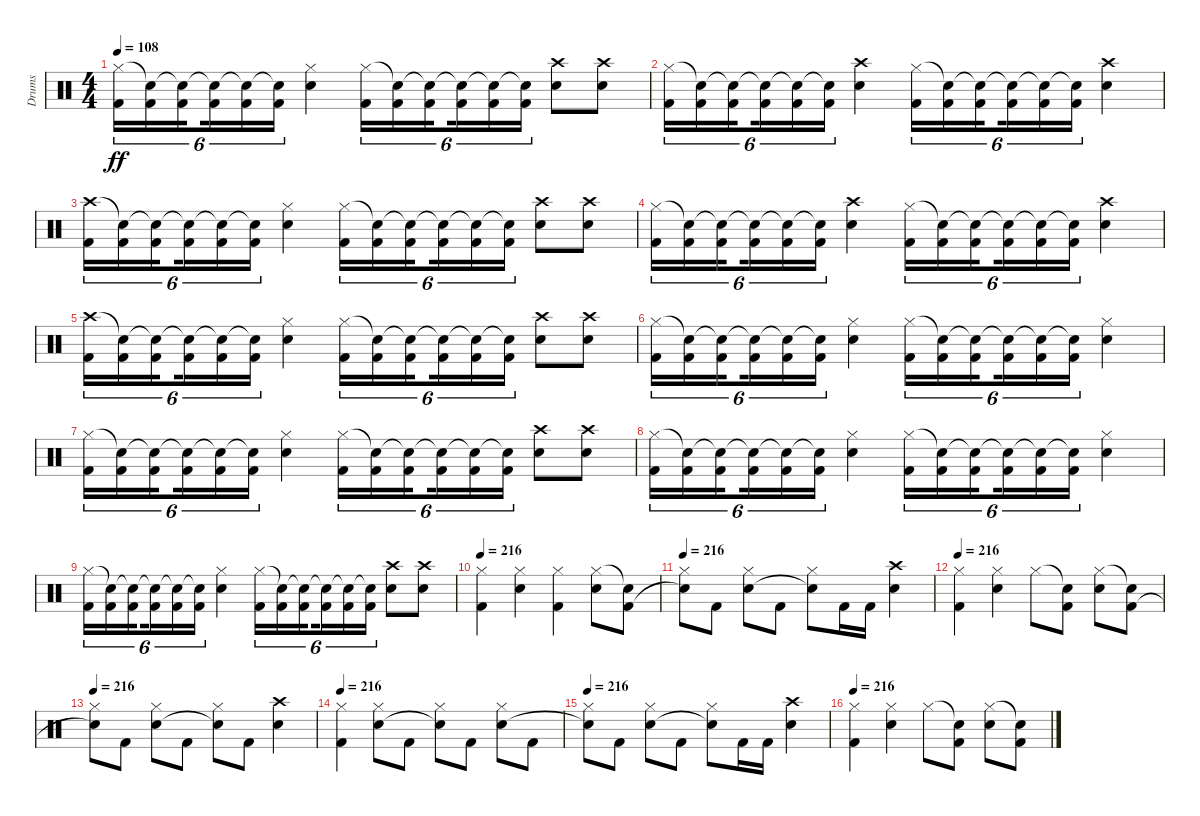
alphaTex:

\track ("Drums" "Drums") {instrument percussion}
\staff {score}
\articulation defaults
\ts (4 4)
\tempo 108
\clef neutral
\ks c
("Hi-Hat (closed)" "Kick (hit) 2").16{tu (6 4) dy ff} ("Snare (hit)"{t} "Kick (hit) 2").16{tu (6 4)} ("Snare (hit)"{t} "Kick (hit) 2").16{tu (6 4) beam splitsecondary} ("Snare (hit)"{t} "Kick (hit) 2").16{tu (6 4)} ("Snare (hit)"{t} "Kick (hit) 2").16{tu (6 4)} ("Snare (hit)"{t} "Kick (hit) 2").16{tu (6 4)} ("Hi-Hat (closed)" "Snare (hit) 2").4 ("Hi-Hat (closed)" "Kick (hit) 2").16{tu (6 4)} ("Snare (hit)"{t} "Kick (hit) 2").16{tu (6 4)} ("Snare (hit)"{t} "Kick (hit) 2").16{tu (6 4) beam splitsecondary} ("Snare (hit)"{t} "Kick (hit) 2").16{tu (6 4)} ("Snare (hit)"{t} "Kick (hit) 2").16{tu (6 4)} ("Snare (hit)"{t} "Kick (hit) 2").16{tu (6 4)} ("Crash high (hit)" "Snare (hit) 2").8 ("Crash high (hit)" "Snare (hit) 2").8 |
("Hi-Hat (closed)" "Kick (hit) 2").16{tu (6 4)} ("Snare (hit)"{t} "Kick (hit) 2").16{tu (6 4)} ("Snare (hit)"{t} "Kick (hit) 2").16{tu (6 4) beam splitsecondary} ("Snare (hit)"{t} "Kick (hit) 2").16{tu (6 4)} ("Snare (hit)"{t} "Kick (hit) 2").16{tu (6 4)} ("Snare (hit)"{t} "Kick (hit) 2").16{tu (6 4)} ("Crash high (hit)" "Snare (hit) 2").4 ("Hi-Hat (closed)" "Kick (hit) 2").16{tu (6 4)} ("Snare (hit)"{t} "Kick (hit) 2").16{tu (6 4)} ("Snare (hit)"{t} "Kick (hit) 2").16{tu (6 4) beam splitsecondary} ("Snare (hit)"{t} "Kick (hit) 2").16{tu (6 4)} ("Snare (hit)"{t} "Kick (hit) 2").16{tu (6 4)} ("Snare (hit)"{t} "Kick (hit) 2").16{tu (6 4)} ("Crash high (hit)" "Snare (hit) 2").4 |
("Crash high (hit)" "Kick (hit) 2").16{tu (6 4)} ("Snare (hit)"{t} "Kick (hit) 2").16{tu (6 4)} ("Snare (hit)"{t} "Kick (hit) 2").16{tu (6 4) beam splitsecondary} ("Snare (hit)"{t} "Kick (hit) 2").16{tu (6 4)} ("Snare (hit)"{t} "Kick (hit) 2").16{tu (6 4)} ("Snare (hit)"{t} "Kick (hit) 2").16{tu (6 4)} ("Hi-Hat (closed)" "Snare (hit) 2").4 ("Hi-Hat (closed)" "Kick (hit) 2").16{tu (6 4)} ("Snare (hit)"{t} "Kick (hit) 2").16{tu (6 4)} ("Snare (hit)"{t} "Kick (hit) 2").16{tu (6 4) beam splitsecondary} ("Snare (hit)"{t} "Kick (hit) 2").16{tu (6 4)} ("Snare (hit)"{t} "Kick (hit) 2").16{tu (6 4)} ("Snare (hit)"{t} "Kick (hit) 2").16{tu (6 4)} ("Crash high (hit)" "Snare (hit) 2").8 ("Crash high (hit)" "Snare (hit) 2").8 |
("Hi-Hat (closed)" "Kick (hit) 2").16{tu (6 4)} ("Snare (hit)"{t} "Kick (hit) 2").16{tu (6 4)} ("Snare (hit)"{t} "Kick (hit) 2").16{tu (6 4) beam splitsecondary} ("Snare (hit)"{t} "Kick (hit) 2").16{tu (6 4)} ("Snare (hit)"{t} "Kick (hit) 2").16{tu (6 4)} ("Snare (hit)"{t} "Kick (hit) 2").16{tu (6 4)} ("Crash high (hit)" "Snare (hit) 2").4 ("Hi-Hat (closed)" "Kick (hit) 2").16{tu (6 4)} ("Snare (hit)"{t} "Kick (hit) 2").16{tu (6 4)} ("Snare (hit)"{t} "Kick (hit) 2").16{tu (6 4) beam splitsecondary} ("Snare (hit)"{t} "Kick (hit) 2").16{tu (6 4)} ("Snare (hit)"{t} "Kick (hit) 2").16{tu (6 4)} ("Snare (hit)"{t} "Kick (hit) 2").16{tu (6 4)} ("Crash high (hit)" "Snare (hit) 2").4 |
("Crash high (hit)" "Kick (hit) 2").16{tu (6 4)} ("Snare (hit)"{t} "Kick (hit) 2").16{tu (6 4)} ("Snare (hit)"{t} "Kick (hit) 2").16{tu (6 4) beam splitsecondary} ("Snare (hit)"{t} "Kick (hit) 2").16{tu (6 4)} ("Snare (hit)"{t} "Kick (hit) 2").16{tu (6 4)} ("Snare (hit)"{t} "Kick (hit) 2").16{tu (6 4)} ("Hi-Hat (closed)" "Snare (hit) 2").4 ("Hi-Hat (closed)" "Kick (hit) 2").16{tu (6 4)} ("Snare (hit)"{t} "Kick (hit) 2").16{tu (6 4)} ("Snare (hit)"{t} "Kick (hit) 2").16{tu (6 4) beam splitsecondary} ("Snare (hit)"{t} "Kick (hit) 2").16{tu (6 4)} ("Snare (hit)"{t} "Kick (hit) 2").16{tu (6 4)} ("Snare (hit)"{t} "Kick (hit) 2").16{tu (6 4)} ("Crash high (hit)" "Snare (hit) 2").8 ("Crash high (hit)" "Snare (hit) 2").8 |
("Hi-Hat (closed)" "Kick (hit) 2").16{tu (6 4)} ("Snare (hit)"{t} "Kick (hit) 2").16{tu (6 4)} ("Snare (hit)"{t} "Kick (hit) 2").16{tu (6 4) beam splitsecondary} ("Snare (hit)"{t} "Kick (hit) 2").16{tu (6 4)} ("Snare (hit)"{t} "Kick (hit) 2").16{tu (6 4)} ("Snare (hit)"{t} "Kick (hit) 2").16{tu (6 4)} ("Hi-Hat (closed)" "Snare (hit) 2").4 ("Hi-Hat (closed)" "Kick (hit) 2").16{tu (6 4)} ("Snare (hit)"{t} "Kick (hit) 2").16{tu (6 4)} ("Snare (hit)"{t} "Kick (hit) 2").16{tu (6 4) beam splitsecondary} ("Snare (hit)"{t} "Kick (hit) 2").16{tu (6 4)} ("Snare (hit)"{t} "Kick (hit) 2").16{tu (6 4)} ("Snare (hit)"{t} "Kick (hit) 2").16{tu (6 4)} ("Hi-Hat (closed)" "Snare (hit) 2").4 |
("Hi-Hat (closed)" "Kick (hit) 2").16{tu (6 4)} ("Snare (hit)"{t} "Kick (hit) 2").16{tu (6 4)} ("Snare (hit)"{t} "Kick (hit) 2").16{tu (6 4) beam splitsecondary} ("Snare (hit)"{t} "Kick (hit) 2").16{tu (6 4)} ("Snare (hit)"{t} "Kick (hit) 2").16{tu (6 4)} ("Snare (hit)"{t} "Kick (hit) 2").16{tu (6 4)} ("Hi-Hat (closed)" "Snare (hit) 2").4 ("Hi-Hat (closed)" "Kick (hit) 2").16{tu (6 4)} ("Snare (hit)"{t} "Kick (hit) 2").16{tu (6 4)} ("Snare (hit)"{t} "Kick (hit) 2").16{tu (6 4) beam splitsecondary} ("Snare (hit)"{t} "Kick (hit) 2").16{tu (6 4)} ("Snare (hit)"{t} "Kick (hit) 2").16{tu (6 4)} ("Snare (hit)"{t} "Kick (hit) 2").16{tu (6 4)} ("Crash high (hit)" "Snare (hit) 2").8 ("Crash high (hit)" "Snare (hit) 2").8 |
("Hi-Hat (closed)" "Kick (hit) 2").16{tu (6 4)} ("Snare (hit)"{t} "Kick (hit) 2").16{tu (6 4)} ("Snare (hit)"{t} "Kick (hit) 2").16{tu (6 4) beam splitsecondary} ("Snare (hit)"{t} "Kick (hit) 2").16{tu (6 4)} ("Snare (hit)"{t} "Kick (hit) 2").16{tu (6 4)} ("Snare (hit)"{t} "Kick (hit) 2").16{tu (6 4)} ("Hi-Hat (closed)" "Snare (hit) 2").4 ("Hi-Hat (closed)" "Kick (hit) 2").16{tu (6 4)} ("Snare (hit)"{t} "Kick (hit) 2").16{tu (6 4)} ("Snare (hit)"{t} "Kick (hit) 2").16{tu (6 4) beam splitsecondary} ("Snare (hit)"{t} "Kick (hit) 2").16{tu (6 4)} ("Snare (hit)"{t} "Kick (hit) 2").16{tu (6 4)} ("Snare (hit)"{t} "Kick (hit) 2").16{tu (6 4)} ("Hi-Hat (closed)" "Snare (hit) 2").4 |
("Hi-Hat (closed)" "Kick (hit) 2").16{tu (6 4)} ("Snare (hit)"{t} "Kick (hit) 2").16{tu (6 4)} ("Snare (hit)"{t} "Kick (hit) 2").16{tu (6 4) beam splitsecondary} ("Snare (hit)"{t} "Kick (hit) 2").16{tu (6 4)} ("Snare (hit)"{t} "Kick (hit) 2").16{tu (6 4)} ("Snare (hit)"{t} "Kick (hit) 2").16{tu (6 4)} ("Hi-Hat (closed)" "Snare (hit) 2").4 ("Hi-Hat (closed)" "Kick (hit) 2").16{tu (6 4)} ("Snare (hit)"{t} "Kick (hit) 2").16{tu (6 4)} ("Snare (hit)"{t} "Kick (hit) 2").16{tu (6 4) beam splitsecondary} ("Snare (hit)"{t} "Kick (hit) 2").16{tu (6 4)} ("Snare (hit)"{t} "Kick (hit) 2").16{tu (6 4)} ("Snare (hit)"{t} "Kick (hit) 2").16{tu (6 4)} ("Crash high (hit)" "Snare (hit) 2").8 ("Crash high (hit)" "Snare (hit) 2").8 |
\tempo 216
("Hi-Hat (closed)" "Kick (hit) 2").4{volume 15} ("Hi-Hat (closed)" "Snare (hit) 2").4 ("Hi-Hat (closed)" "Kick (hit) 2").4 ("Hi-Hat (closed)" "Snare (hit) 2").8 ("Snare (hit)"{t} "Kick (hit) 2").8 |
\tempo 216
("Hi-Hat (closed)" "Snare (hit)"{t}).8 "Kick (hit) 2".8 ("Hi-Hat (closed)" "Snare (hit) 2").8 "Kick (hit) 2".8 ("Hi-Hat (closed)" "Snare (hit)"{t}).8 "Kick (hit) 2".16 "Kick (hit) 2".16 ("Crash high (hit)" "Snare (hit) 2").4 |
\tempo 216
("Hi-Hat (closed)" "Kick (hit) 2").4 ("Hi-Hat (closed)" "Snare (hit) 2").4 "Hi-Hat (closed)".8 ("Snare (hit)"{t} "Kick (hit) 2").8 ("Hi-Hat (closed)" "Snare (hit) 2").8 ("Snare (hit)"{t} "Kick (hit) 2").8 |
\tempo 216
("Hi-Hat (closed)" "Snare (hit)"{t}).8 "Kick (hit) 2".8 ("Hi-Hat (closed)" "Snare (hit) 2").8 "Kick (hit) 2".8 ("Hi-Hat (closed)" "Snare (hit)"{t}).8 "Kick (hit) 2".8 ("Crash high (hit)" "Snare (hit) 2").4 |
\tempo 216
("Hi-Hat (closed)" "Kick (hit) 2").4 ("Hi-Hat (closed)" "Snare (hit) 2").8 "Kick (hit) 2".8 ("Hi-Hat (closed)" "Snare (hit)"{t}).8 "Kick (hit) 2".8 ("Hi-Hat (closed)" "Snare (hit) 2").8 "Kick (hit) 2".8 |
\tempo 216
("Hi-Hat (closed)" "Snare (hit)"{t}).8 "Kick (hit) 2".8 ("Hi-Hat (closed)" "Snare (hit) 2").8 "Kick (hit) 2".8 ("Hi-Hat (closed)" "Snare (hit)"{t}).8 "Kick (hit) 2".16 "Kick (hit) 2".16 ("Crash high (hit)" "Snare (hit) 2").4 |
\tempo 216
("Hi-Hat (closed)" "Kick (hit) 2").4 ("Hi-Hat (closed)" "Snare (hit) 2").4 "Hi-Hat (closed)".8 ("Snare (hit)"{t} "Kick (hit) 2").8 ("Hi-Hat (closed)" "Snare (hit) 2").8 ("Snare (hit)"{t} "Kick (hit) 2").8
